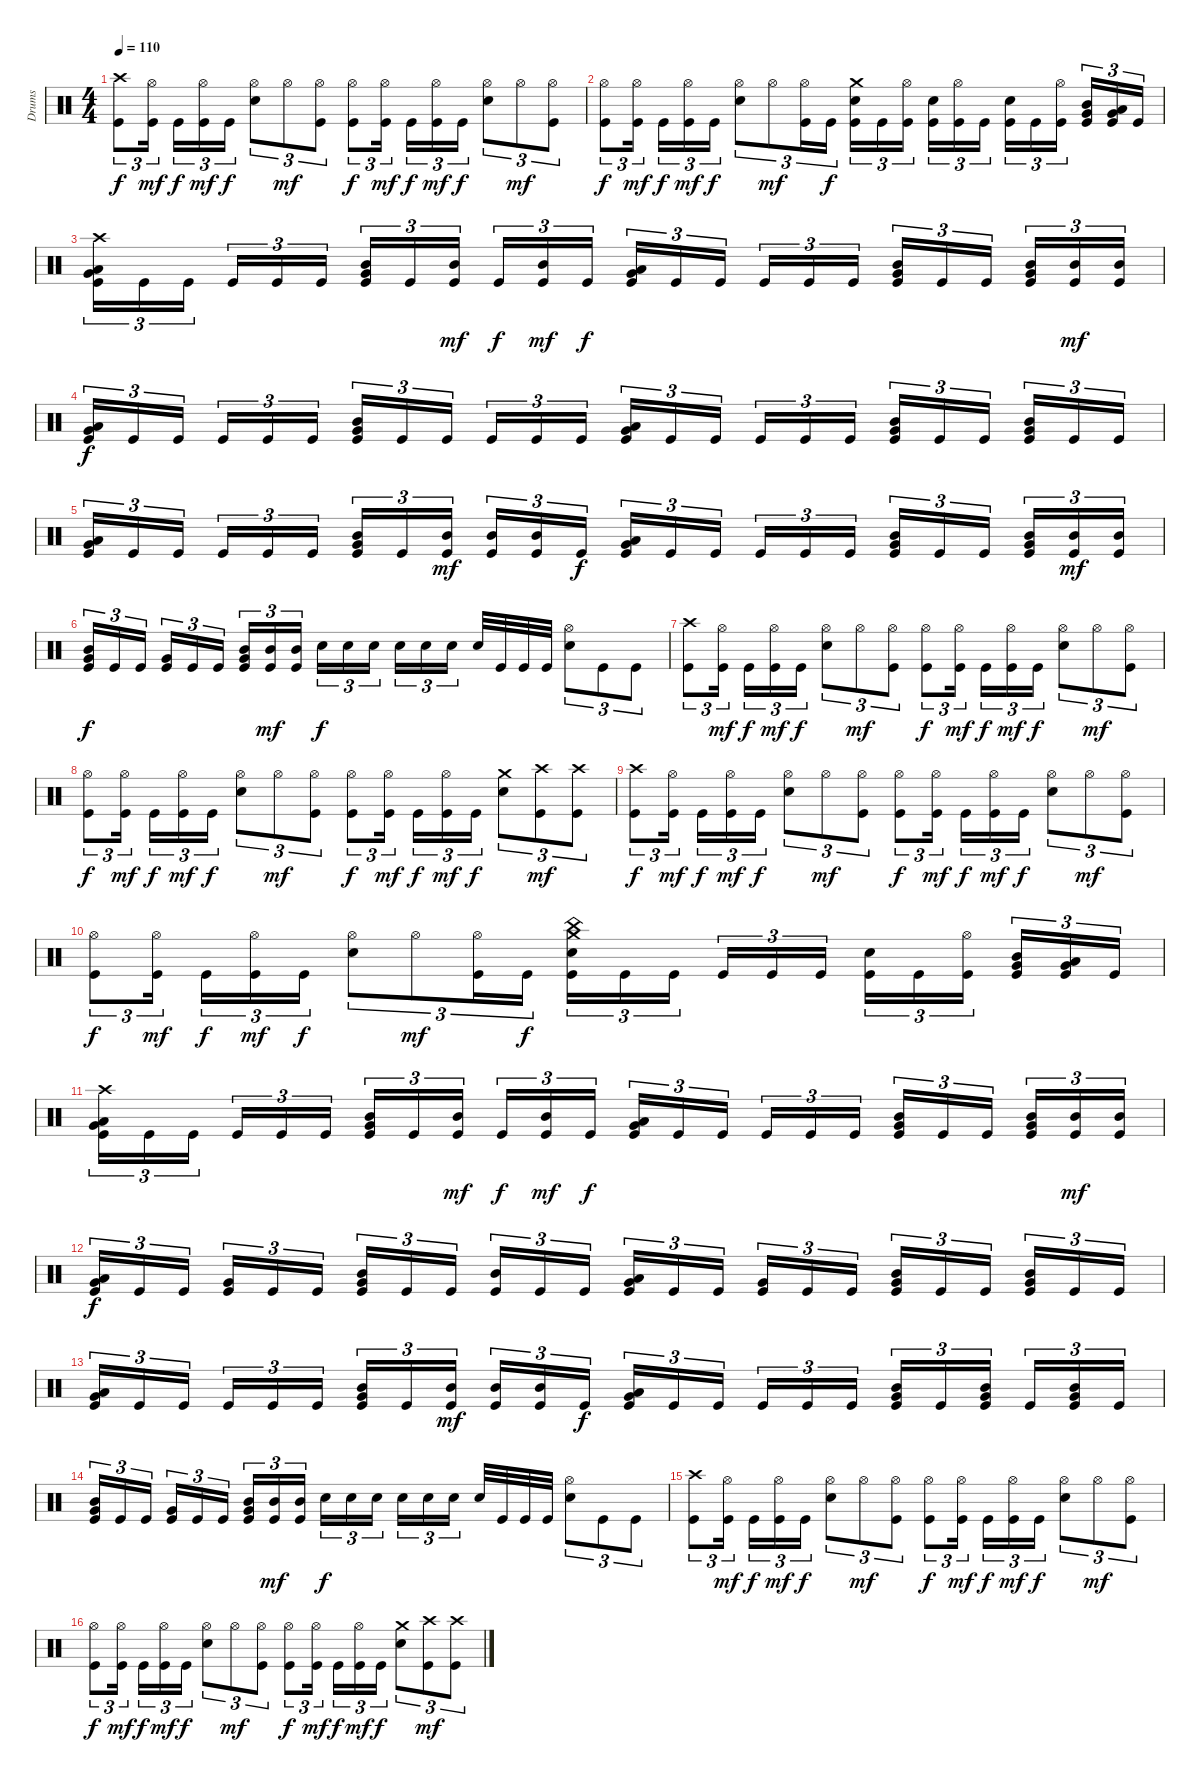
\track ("Drums" "Drums") {instrument percussion}
\staff {score}
\articulation defaults
\ts (4 4)
\tempo 110
\clef neutral
\ks c
("Crash high (hit)" "Kick (hit)").8{tu (3 2) dy f} ("Hi-Hat (open)" "Kick (hit)").16{tu (3 2) dy mf} "Kick (hit)".16{tu (3 2) dy f} ("Hi-Hat (open)" "Kick (hit)").16{tu (3 2) dy mf} "Kick (hit)".16{tu (3 2) dy f} ("Hi-Hat (open)" "Electric Snare (hit)").8{tu (3 2)} "Hi-Hat (open)".8{tu (3 2) dy mf} ("Hi-Hat (open)" "Kick (hit)").8{tu (3 2)} ("Hi-Hat (open)" "Kick (hit)").8{tu (3 2) dy f} ("Hi-Hat (open)" "Kick (hit)").16{tu (3 2) dy mf} "Kick (hit)".16{tu (3 2) dy f} ("Hi-Hat (open)" "Kick (hit)").16{tu (3 2) dy mf} "Kick (hit)".16{tu (3 2) dy f} ("Hi-Hat (open)" "Electric Snare (hit)").8{tu (3 2)} "Hi-Hat (open)".8{tu (3 2) dy mf} ("Hi-Hat (open)" "Kick (hit)").8{tu (3 2)} |
("Hi-Hat (open)" "Kick (hit)").8{tu (3 2) dy f} ("Hi-Hat (open)" "Kick (hit)").16{tu (3 2) dy mf} "Kick (hit)".16{tu (3 2) dy f} ("Hi-Hat (open)" "Kick (hit)").16{tu (3 2) dy mf} "Kick (hit)".16{tu (3 2) dy f} ("Hi-Hat (open)" "Electric Snare (hit)").8{tu (3 2)} "Hi-Hat (open)".8{tu (3 2) dy mf} ("Hi-Hat (open)" "Kick (hit)").16{tu (3 2)} "Kick (hit)".16{tu (3 2) dy f} ("Crash medium (hit)" "Electric Snare (hit)" "Kick (hit)").16{tu (3 2)} "Kick (hit)".16{tu (3 2)} ("Hi-Hat (open)" "Kick (hit)").16{tu (3 2)} ("Electric Snare (hit)" "Kick (hit)").16{tu (3 2)} ("Hi-Hat (open)" "Kick (hit)").16{tu (3 2)} "Kick (hit)".16{tu (3 2)} ("Electric Snare (hit)" "Kick (hit)").16{tu (3 2)} "Kick (hit)".16{tu (3 2)} ("Hi-Hat (open)" "Kick (hit)").16{tu (3 2)} ("Mid Tom (hit)" "Very Low Tom (hit)" "Kick (hit)").16{tu (3 2)} ("Low Tom (hit)" "Very Low Tom (hit)" "Kick (hit)").16{tu (3 2)} "Kick (hit)".16{tu (3 2)} |
("Crash high (hit)" "Low Tom (hit)" "Very Low Tom (hit)" "Kick (hit)").16{tu (3 2)} "Kick (hit)".16{tu (3 2)} "Kick (hit)".16{tu (3 2)} "Kick (hit)".16{tu (3 2)} "Kick (hit)".16{tu (3 2)} "Kick (hit)".16{tu (3 2)} ("Mid Tom (hit)" "Very Low Tom (hit)" "Kick (hit)").16{tu (3 2)} "Kick (hit)".16{tu (3 2)} ("Mid Tom (hit)" "Kick (hit)").16{tu (3 2) dy mf} "Kick (hit)".16{tu (3 2) dy f} ("Mid Tom (hit)" "Kick (hit)").16{tu (3 2) dy mf} "Kick (hit)".16{tu (3 2) dy f} ("Low Tom (hit)" "Very Low Tom (hit)" "Kick (hit)").16{tu (3 2)} "Kick (hit)".16{tu (3 2)} "Kick (hit)".16{tu (3 2)} "Kick (hit)".16{tu (3 2)} "Kick (hit)".16{tu (3 2)} "Kick (hit)".16{tu (3 2)} ("Mid Tom (hit)" "Very Low Tom (hit)" "Kick (hit)").16{tu (3 2)} "Kick (hit)".16{tu (3 2)} "Kick (hit)".16{tu (3 2)} ("Mid Tom (hit)" "Very Low Tom (hit)" "Kick (hit)").16{tu (3 2)} ("Mid Tom (hit)" "Kick (hit)").16{tu (3 2) dy mf} ("Mid Tom (hit)" "Kick (hit)").16{tu (3 2)} |
("Low Tom (hit)" "Very Low Tom (hit)" "Kick (hit)").16{tu (3 2) dy f} "Kick (hit)".16{tu (3 2)} "Kick (hit)".16{tu (3 2)} "Kick (hit)".16{tu (3 2)} "Kick (hit)".16{tu (3 2)} "Kick (hit)".16{tu (3 2)} ("Mid Tom (hit)" "Very Low Tom (hit)" "Kick (hit)").16{tu (3 2)} "Kick (hit)".16{tu (3 2)} "Kick (hit)".16{tu (3 2)} "Kick (hit)".16{tu (3 2)} "Kick (hit)".16{tu (3 2)} "Kick (hit)".16{tu (3 2)} ("Low Tom (hit)" "Very Low Tom (hit)" "Kick (hit)").16{tu (3 2)} "Kick (hit)".16{tu (3 2)} "Kick (hit)".16{tu (3 2)} "Kick (hit)".16{tu (3 2)} "Kick (hit)".16{tu (3 2)} "Kick (hit)".16{tu (3 2)} ("Mid Tom (hit)" "Very Low Tom (hit)" "Kick (hit)").16{tu (3 2)} "Kick (hit)".16{tu (3 2)} "Kick (hit)".16{tu (3 2)} ("Mid Tom (hit)" "Very Low Tom (hit)" "Kick (hit)").16{tu (3 2)} "Kick (hit)".16{tu (3 2)} "Kick (hit)".16{tu (3 2)} |
("Low Tom (hit)" "Very Low Tom (hit)" "Kick (hit)").16{tu (3 2)} "Kick (hit)".16{tu (3 2)} "Kick (hit)".16{tu (3 2)} "Kick (hit)".16{tu (3 2)} "Kick (hit)".16{tu (3 2)} "Kick (hit)".16{tu (3 2)} ("Mid Tom (hit)" "Very Low Tom (hit)" "Kick (hit)").16{tu (3 2)} "Kick (hit)".16{tu (3 2)} ("Mid Tom (hit)" "Kick (hit)").16{tu (3 2) dy mf} ("Mid Tom (hit)" "Kick (hit)").16{tu (3 2)} ("Mid Tom (hit)" "Kick (hit)").16{tu (3 2)} "Kick (hit)".16{tu (3 2) dy f} ("Low Tom (hit)" "Very Low Tom (hit)" "Kick (hit)").16{tu (3 2)} "Kick (hit)".16{tu (3 2)} "Kick (hit)".16{tu (3 2)} "Kick (hit)".16{tu (3 2)} "Kick (hit)".16{tu (3 2)} "Kick (hit)".16{tu (3 2)} ("Mid Tom (hit)" "Very Low Tom (hit)" "Kick (hit)").16{tu (3 2)} "Kick (hit)".16{tu (3 2)} "Kick (hit)".16{tu (3 2)} ("Mid Tom (hit)" "Very Low Tom (hit)" "Kick (hit)").16{tu (3 2)} ("Mid Tom (hit)" "Kick (hit)").16{tu (3 2) dy mf} ("Mid Tom (hit)" "Kick (hit)").16{tu (3 2)} |
("Mid Tom (hit)" "Very Low Tom (hit)" "Kick (hit)").16{tu (3 2) dy f} "Kick (hit)".16{tu (3 2)} "Kick (hit)".16{tu (3 2)} ("Very Low Tom (hit)" "Kick (hit)").16{tu (3 2)} "Kick (hit)".16{tu (3 2)} "Kick (hit)".16{tu (3 2)} ("Mid Tom (hit)" "Very Low Tom (hit)" "Kick (hit)").16{tu (3 2)} ("Mid Tom (hit)" "Kick (hit)").16{tu (3 2) dy mf} ("Mid Tom (hit)" "Kick (hit)").16{tu (3 2)} "Electric Snare (hit)".16{tu (3 2) dy f} "Electric Snare (hit)".16{tu (3 2)} "Electric Snare (hit)".16{tu (3 2)} "Electric Snare (hit)".16{tu (3 2)} "Electric Snare (hit)".16{tu (3 2)} "Electric Snare (hit)".16{tu (3 2)} "Electric Snare (hit)".32 "Kick (hit)".32 "Kick (hit)".32 "Kick (hit)".32 ("Hi-Hat (open)" "Electric Snare (hit)").8{tu (3 2)} "Kick (hit)".8{tu (3 2)} "Kick (hit)".8{tu (3 2)} |
("Crash high (hit)" "Kick (hit)").8{tu (3 2)} ("Hi-Hat (open)" "Kick (hit)").16{tu (3 2) dy mf} "Kick (hit)".16{tu (3 2) dy f} ("Hi-Hat (open)" "Kick (hit)").16{tu (3 2) dy mf} "Kick (hit)".16{tu (3 2) dy f} ("Hi-Hat (open)" "Electric Snare (hit)").8{tu (3 2)} "Hi-Hat (open)".8{tu (3 2) dy mf} ("Hi-Hat (open)" "Kick (hit)").8{tu (3 2)} ("Hi-Hat (open)" "Kick (hit)").8{tu (3 2) dy f} ("Hi-Hat (open)" "Kick (hit)").16{tu (3 2) dy mf} "Kick (hit)".16{tu (3 2) dy f} ("Hi-Hat (open)" "Kick (hit)").16{tu (3 2) dy mf} "Kick (hit)".16{tu (3 2) dy f} ("Hi-Hat (open)" "Electric Snare (hit)").8{tu (3 2)} "Hi-Hat (open)".8{tu (3 2) dy mf} ("Hi-Hat (open)" "Kick (hit)").8{tu (3 2)} |
("Hi-Hat (open)" "Kick (hit)").8{tu (3 2) dy f} ("Hi-Hat (open)" "Kick (hit)").16{tu (3 2) dy mf} "Kick (hit)".16{tu (3 2) dy f} ("Hi-Hat (open)" "Kick (hit)").16{tu (3 2) dy mf} "Kick (hit)".16{tu (3 2) dy f} ("Hi-Hat (open)" "Electric Snare (hit)").8{tu (3 2)} "Hi-Hat (open)".8{tu (3 2) dy mf} ("Hi-Hat (open)" "Kick (hit)").8{tu (3 2)} ("Hi-Hat (open)" "Kick (hit)").8{tu (3 2) dy f} ("Hi-Hat (open)" "Kick (hit)").16{tu (3 2) dy mf} "Kick (hit)".16{tu (3 2) dy f} ("Hi-Hat (open)" "Kick (hit)").16{tu (3 2) dy mf} "Kick (hit)".16{tu (3 2) dy f} ("Crash medium (hit)" "Electric Snare (hit)").8{tu (3 2)} ("Crash high (hit)" "Kick (hit)").8{tu (3 2) dy mf} ("Crash high (hit)" "Kick (hit)").8{tu (3 2)} |
("Crash high (hit)" "Kick (hit)").8{tu (3 2) dy f} ("Hi-Hat (open)" "Kick (hit)").16{tu (3 2) dy mf} "Kick (hit)".16{tu (3 2) dy f} ("Hi-Hat (open)" "Kick (hit)").16{tu (3 2) dy mf} "Kick (hit)".16{tu (3 2) dy f} ("Hi-Hat (open)" "Electric Snare (hit)").8{tu (3 2)} "Hi-Hat (open)".8{tu (3 2) dy mf} ("Hi-Hat (open)" "Kick (hit)").8{tu (3 2)} ("Hi-Hat (open)" "Kick (hit)").8{tu (3 2) dy f} ("Hi-Hat (open)" "Kick (hit)").16{tu (3 2) dy mf} "Kick (hit)".16{tu (3 2) dy f} ("Hi-Hat (open)" "Kick (hit)").16{tu (3 2) dy mf} "Kick (hit)".16{tu (3 2) dy f} ("Hi-Hat (open)" "Electric Snare (hit)").8{tu (3 2)} "Hi-Hat (open)".8{tu (3 2) dy mf} ("Hi-Hat (open)" "Kick (hit)").8{tu (3 2)} |
("Hi-Hat (open)" "Kick (hit)").8{tu (3 2) dy f} ("Hi-Hat (open)" "Kick (hit)").16{tu (3 2) dy mf} "Kick (hit)".16{tu (3 2) dy f} ("Hi-Hat (open)" "Kick (hit)").16{tu (3 2) dy mf} "Kick (hit)".16{tu (3 2) dy f} ("Hi-Hat (open)" "Electric Snare (hit)").8{tu (3 2)} "Hi-Hat (open)".8{tu (3 2) dy mf} ("Hi-Hat (open)" "Kick (hit)").16{tu (3 2)} "Kick (hit)".16{tu (3 2) dy f} ("Crash medium (hit)" "China (hit)" "Electric Snare (hit)" "Kick (hit)").16{tu (3 2)} "Kick (hit)".16{tu (3 2)} "Kick (hit)".16{tu (3 2)} "Kick (hit)".16{tu (3 2)} "Kick (hit)".16{tu (3 2)} "Kick (hit)".16{tu (3 2)} ("Electric Snare (hit)" "Kick (hit)").16{tu (3 2)} "Kick (hit)".16{tu (3 2)} ("Hi-Hat (open)" "Kick (hit)").16{tu (3 2)} ("Mid Tom (hit)" "Very Low Tom (hit)" "Kick (hit)").16{tu (3 2)} ("Low Tom (hit)" "Very Low Tom (hit)" "Kick (hit)").16{tu (3 2)} "Kick (hit)".16{tu (3 2)} |
("Crash high (hit)" "Low Tom (hit)" "Very Low Tom (hit)" "Kick (hit)").16{tu (3 2)} "Kick (hit)".16{tu (3 2)} "Kick (hit)".16{tu (3 2)} "Kick (hit)".16{tu (3 2)} "Kick (hit)".16{tu (3 2)} "Kick (hit)".16{tu (3 2)} ("Mid Tom (hit)" "Very Low Tom (hit)" "Kick (hit)").16{tu (3 2)} "Kick (hit)".16{tu (3 2)} ("Mid Tom (hit)" "Kick (hit)").16{tu (3 2) dy mf} "Kick (hit)".16{tu (3 2) dy f} ("Mid Tom (hit)" "Kick (hit)").16{tu (3 2) dy mf} "Kick (hit)".16{tu (3 2) dy f} ("Low Tom (hit)" "Very Low Tom (hit)" "Kick (hit)").16{tu (3 2)} "Kick (hit)".16{tu (3 2)} "Kick (hit)".16{tu (3 2)} "Kick (hit)".16{tu (3 2)} "Kick (hit)".16{tu (3 2)} "Kick (hit)".16{tu (3 2)} ("Mid Tom (hit)" "Very Low Tom (hit)" "Kick (hit)").16{tu (3 2)} "Kick (hit)".16{tu (3 2)} "Kick (hit)".16{tu (3 2)} ("Mid Tom (hit)" "Very Low Tom (hit)" "Kick (hit)").16{tu (3 2)} ("Mid Tom (hit)" "Kick (hit)").16{tu (3 2) dy mf} ("Mid Tom (hit)" "Kick (hit)").16{tu (3 2)} |
("Low Tom (hit)" "Very Low Tom (hit)" "Kick (hit)").16{tu (3 2) dy f} "Kick (hit)".16{tu (3 2)} "Kick (hit)".16{tu (3 2)} ("Very Low Tom (hit)" "Kick (hit)").16{tu (3 2)} "Kick (hit)".16{tu (3 2)} "Kick (hit)".16{tu (3 2)} ("Mid Tom (hit)" "Very Low Tom (hit)" "Kick (hit)").16{tu (3 2)} "Kick (hit)".16{tu (3 2)} "Kick (hit)".16{tu (3 2)} ("Mid Tom (hit)" "Kick (hit)").16{tu (3 2)} "Kick (hit)".16{tu (3 2)} "Kick (hit)".16{tu (3 2)} ("Low Tom (hit)" "Very Low Tom (hit)" "Kick (hit)").16{tu (3 2)} "Kick (hit)".16{tu (3 2)} "Kick (hit)".16{tu (3 2)} ("Very Low Tom (hit)" "Kick (hit)").16{tu (3 2)} "Kick (hit)".16{tu (3 2)} "Kick (hit)".16{tu (3 2)} ("Mid Tom (hit)" "Very Low Tom (hit)" "Kick (hit)").16{tu (3 2)} "Kick (hit)".16{tu (3 2)} "Kick (hit)".16{tu (3 2)} ("Mid Tom (hit)" "Very Low Tom (hit)" "Kick (hit)").16{tu (3 2)} "Kick (hit)".16{tu (3 2)} "Kick (hit)".16{tu (3 2)} |
("Low Tom (hit)" "Very Low Tom (hit)" "Kick (hit)").16{tu (3 2)} "Kick (hit)".16{tu (3 2)} "Kick (hit)".16{tu (3 2)} "Kick (hit)".16{tu (3 2)} "Kick (hit)".16{tu (3 2)} "Kick (hit)".16{tu (3 2)} ("Mid Tom (hit)" "Very Low Tom (hit)" "Kick (hit)").16{tu (3 2)} "Kick (hit)".16{tu (3 2)} ("Mid Tom (hit)" "Kick (hit)").16{tu (3 2) dy mf} ("Mid Tom (hit)" "Kick (hit)").16{tu (3 2)} ("Mid Tom (hit)" "Kick (hit)").16{tu (3 2)} "Kick (hit)".16{tu (3 2) dy f} ("Low Tom (hit)" "Very Low Tom (hit)" "Kick (hit)").16{tu (3 2)} "Kick (hit)".16{tu (3 2)} "Kick (hit)".16{tu (3 2)} "Kick (hit)".16{tu (3 2)} "Kick (hit)".16{tu (3 2)} "Kick (hit)".16{tu (3 2)} ("Mid Tom (hit)" "Very Low Tom (hit)" "Kick (hit)").16{tu (3 2)} "Kick (hit)".16{tu (3 2)} ("Mid Tom (hit)" "Very Low Tom (hit)" "Kick (hit)").16{tu (3 2)} "Kick (hit)".16{tu (3 2)} ("Mid Tom (hit)" "Very Low Tom (hit)" "Kick (hit)").16{tu (3 2)} "Kick (hit)".16{tu (3 2)} |
("Mid Tom (hit)" "Very Low Tom (hit)" "Kick (hit)").16{tu (3 2)} "Kick (hit)".16{tu (3 2)} "Kick (hit)".16{tu (3 2)} ("Very Low Tom (hit)" "Kick (hit)").16{tu (3 2)} "Kick (hit)".16{tu (3 2)} "Kick (hit)".16{tu (3 2)} ("Mid Tom (hit)" "Very Low Tom (hit)" "Kick (hit)").16{tu (3 2)} ("Mid Tom (hit)" "Kick (hit)").16{tu (3 2) dy mf} ("Mid Tom (hit)" "Kick (hit)").16{tu (3 2)} "Electric Snare (hit)".16{tu (3 2) dy f} "Electric Snare (hit)".16{tu (3 2)} "Electric Snare (hit)".16{tu (3 2)} "Electric Snare (hit)".16{tu (3 2)} "Electric Snare (hit)".16{tu (3 2)} "Electric Snare (hit)".16{tu (3 2)} "Electric Snare (hit)".32 "Kick (hit)".32 "Kick (hit)".32 "Kick (hit)".32 ("Hi-Hat (open)" "Electric Snare (hit)").8{tu (3 2)} "Kick (hit)".8{tu (3 2)} "Kick (hit)".8{tu (3 2)} |
("Crash high (hit)" "Kick (hit)").8{tu (3 2)} ("Hi-Hat (open)" "Kick (hit)").16{tu (3 2) dy mf} "Kick (hit)".16{tu (3 2) dy f} ("Hi-Hat (open)" "Kick (hit)").16{tu (3 2) dy mf} "Kick (hit)".16{tu (3 2) dy f} ("Hi-Hat (open)" "Electric Snare (hit)").8{tu (3 2)} "Hi-Hat (open)".8{tu (3 2) dy mf} ("Hi-Hat (open)" "Kick (hit)").8{tu (3 2)} ("Hi-Hat (open)" "Kick (hit)").8{tu (3 2) dy f} ("Hi-Hat (open)" "Kick (hit)").16{tu (3 2) dy mf} "Kick (hit)".16{tu (3 2) dy f} ("Hi-Hat (open)" "Kick (hit)").16{tu (3 2) dy mf} "Kick (hit)".16{tu (3 2) dy f} ("Hi-Hat (open)" "Electric Snare (hit)").8{tu (3 2)} "Hi-Hat (open)".8{tu (3 2) dy mf} ("Hi-Hat (open)" "Kick (hit)").8{tu (3 2)} |
("Hi-Hat (open)" "Kick (hit)").8{tu (3 2) dy f} ("Hi-Hat (open)" "Kick (hit)").16{tu (3 2) dy mf} "Kick (hit)".16{tu (3 2) dy f} ("Hi-Hat (open)" "Kick (hit)").16{tu (3 2) dy mf} "Kick (hit)".16{tu (3 2) dy f} ("Hi-Hat (open)" "Electric Snare (hit)").8{tu (3 2)} "Hi-Hat (open)".8{tu (3 2) dy mf} ("Hi-Hat (open)" "Kick (hit)").8{tu (3 2)} ("Hi-Hat (open)" "Kick (hit)").8{tu (3 2) dy f} ("Hi-Hat (open)" "Kick (hit)").16{tu (3 2) dy mf} "Kick (hit)".16{tu (3 2) dy f} ("Hi-Hat (open)" "Kick (hit)").16{tu (3 2) dy mf} "Kick (hit)".16{tu (3 2) dy f} ("Crash medium (hit)" "Electric Snare (hit)").8{tu (3 2)} ("Crash high (hit)" "Kick (hit)").8{tu (3 2) dy mf} ("Crash high (hit)" "Kick (hit)").8{tu (3 2)}
